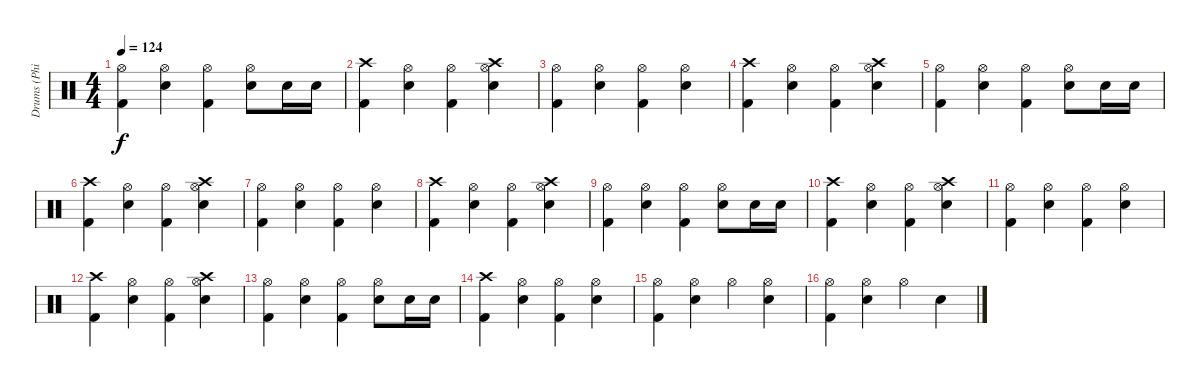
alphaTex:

\track ("Drums (Phil R.)" "Drums (Phi") {instrument percussion}
\staff {score}
\articulation defaults
\ts (4 4)
\tempo 124
\clef neutral
\ks c
("Hi-Hat (open)" "Kick (hit) 2").4{dy f} ("Snare (hit) 2" "Hi-Hat (open)").4 ("Hi-Hat (open)" "Kick (hit) 2").4 ("Snare (hit) 2" "Hi-Hat (open)").8 "Snare (hit) 2".16 "Snare (hit) 2".16 |
("Crash high (hit)" "Kick (hit) 2").4 ("Snare (hit) 2" "Hi-Hat (open)").4 ("Hi-Hat (open)" "Kick (hit) 2").4 ("Crash high (hit)" "Snare (hit) 2" "Hi-Hat (open)").4 |
("Hi-Hat (open)" "Kick (hit) 2").4 ("Snare (hit) 2" "Hi-Hat (open)").4 ("Hi-Hat (open)" "Kick (hit) 2").4 ("Snare (hit) 2" "Hi-Hat (open)").4 |
("Crash high (hit)" "Kick (hit) 2").4 ("Snare (hit) 2" "Hi-Hat (open)").4 ("Hi-Hat (open)" "Kick (hit) 2").4 ("Crash high (hit)" "Snare (hit) 2" "Hi-Hat (open)").4 |
("Hi-Hat (open)" "Kick (hit) 2").4 ("Snare (hit) 2" "Hi-Hat (open)").4 ("Hi-Hat (open)" "Kick (hit) 2").4 ("Snare (hit) 2" "Hi-Hat (open)").8 "Snare (hit) 2".16 "Snare (hit) 2".16 |
("Crash high (hit)" "Kick (hit) 2").4 ("Snare (hit) 2" "Hi-Hat (open)").4 ("Hi-Hat (open)" "Kick (hit) 2").4 ("Crash high (hit)" "Snare (hit) 2" "Hi-Hat (open)").4 |
("Hi-Hat (open)" "Kick (hit) 2").4 ("Snare (hit) 2" "Hi-Hat (open)").4 ("Hi-Hat (open)" "Kick (hit) 2").4 ("Snare (hit) 2" "Hi-Hat (open)").4 |
("Crash high (hit)" "Kick (hit) 2").4 ("Snare (hit) 2" "Hi-Hat (open)").4 ("Hi-Hat (open)" "Kick (hit) 2").4 ("Crash high (hit)" "Snare (hit) 2" "Hi-Hat (open)").4 |
("Hi-Hat (open)" "Kick (hit) 2").4 ("Snare (hit) 2" "Hi-Hat (open)").4 ("Hi-Hat (open)" "Kick (hit) 2").4 ("Snare (hit) 2" "Hi-Hat (open)").8 "Snare (hit) 2".16 "Snare (hit) 2".16 |
("Crash high (hit)" "Kick (hit) 2").4 ("Snare (hit) 2" "Hi-Hat (open)").4 ("Hi-Hat (open)" "Kick (hit) 2").4 ("Crash high (hit)" "Snare (hit) 2" "Hi-Hat (open)").4 |
("Hi-Hat (open)" "Kick (hit) 2").4 ("Snare (hit) 2" "Hi-Hat (open)").4 ("Hi-Hat (open)" "Kick (hit) 2").4 ("Snare (hit) 2" "Hi-Hat (open)").4 |
("Crash high (hit)" "Kick (hit) 2").4 ("Snare (hit) 2" "Hi-Hat (open)").4 ("Hi-Hat (open)" "Kick (hit) 2").4 ("Crash high (hit)" "Snare (hit) 2" "Hi-Hat (open)").4 |
("Hi-Hat (open)" "Kick (hit) 2").4 ("Snare (hit) 2" "Hi-Hat (open)").4 ("Hi-Hat (open)" "Kick (hit) 2").4 ("Snare (hit) 2" "Hi-Hat (open)").8 "Snare (hit) 2".16 "Snare (hit) 2".16 |
("Crash high (hit)" "Kick (hit) 2").4 ("Snare (hit) 2" "Hi-Hat (open)").4 ("Hi-Hat (open)" "Kick (hit) 2").4 ("Snare (hit) 2" "Hi-Hat (open)").4 |
("Hi-Hat (open)" "Kick (hit) 2").4 ("Snare (hit) 2" "Hi-Hat (open)").4 "Hi-Hat (open)".4 ("Snare (hit) 2" "Hi-Hat (open)").4 |
("Hi-Hat (open)" "Kick (hit) 2").4 ("Snare (hit) 2" "Hi-Hat (open)").4 "Hi-Hat (open)".4 "Snare (hit) 2".4
